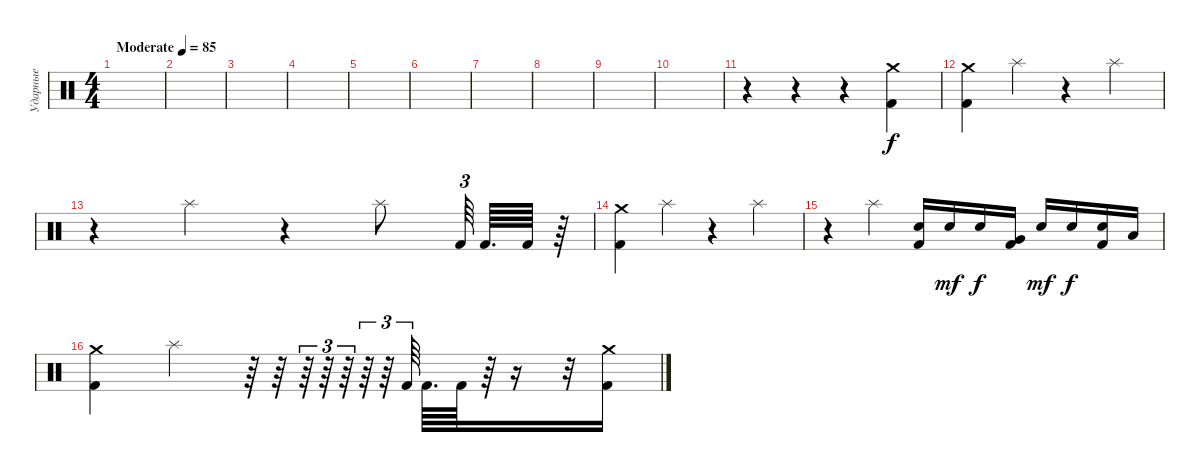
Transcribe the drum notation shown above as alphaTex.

\track ("Ударные" "Ударные") {instrument percussion}
\staff {score}
\articulation defaults
\ts (4 4)
\tempo (85 "Moderate")
\clef neutral
\ks c
|
|
|
|
|
|
|
|
|
|
r.4 r.4 r.4 ("Crash medium (hit)" "Kick (hit) 2").4 |
("Crash medium (hit)" "Kick (hit) 2").4 "Splash (hit)".4 r.4 "Splash (hit)".4 |
r.4 "Splash (hit)".4 r.4 "Splash (hit)".8 "Kick (hit) 2".64{tu (3 2) beam splitsecondary} "Kick (hit) 2".64{d} "Kick (hit) 2".64 r.64 |
("Crash medium (hit)" "Kick (hit) 2").4 "Splash (hit)".4 r.4 "Splash (hit)".4 |
r.4 "Splash (hit)".4 ("Electric Snare (hit)" "Kick (hit) 2").16 "Electric Snare (hit)".16{dy mf} "Electric Snare (hit)".16{dy f} ("Very Low Tom (hit)" "Kick (hit) 2").16 "Electric Snare (hit)".16{dy mf} "Electric Snare (hit)".16{dy f} ("Electric Snare (hit)" "Kick (hit) 2").16 "Low Tom (hit)".16 |
("Crash medium (hit)" "Kick (hit) 2").4 "Splash (hit)".4 r.64 r.64 r.64{tu (3 2)} r.64{tu (3 2)} r.64{tu (3 2)} r.64{tu (3 2)} r.64{tu (3 2)} "Kick (hit) 2".64{tu (3 2) beam splitsecondary} "Kick (hit) 2".64{d} "Kick (hit) 2".64 r.64 r.16 r.32 ("Crash medium (hit)" "Kick (hit) 2").16
